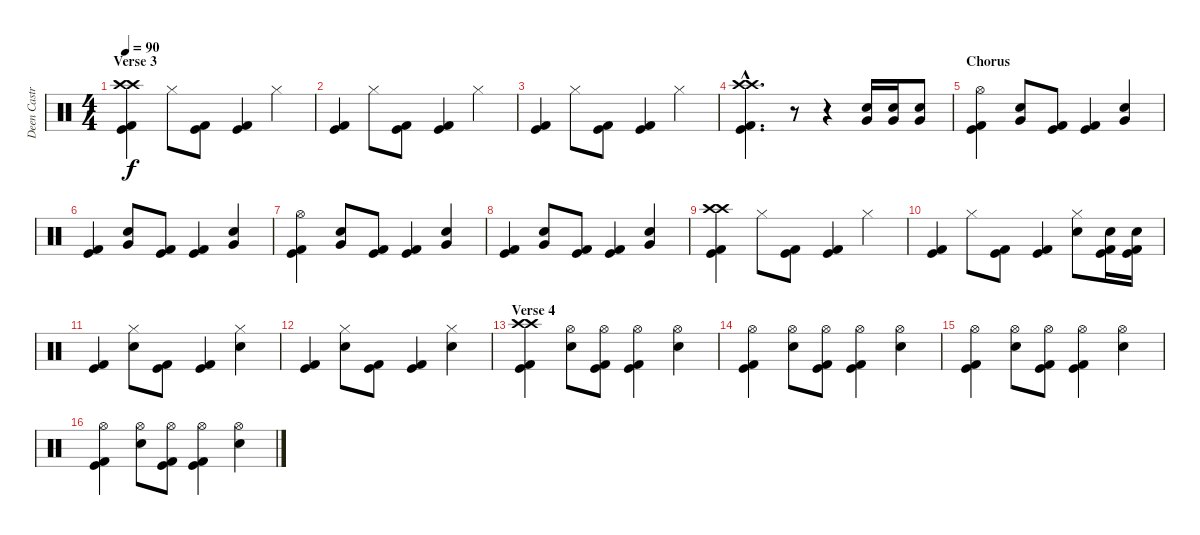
\track ("Deen Castronovo" "Deen Castr") {instrument percussion}
\staff {score}
\articulation defaults
\ts (4 4)
\section ("" "Verse 3")
\tempo 90
\clef neutral
\ks c
("Crash high (hit)" "Crash high (hit)" "Kick (hit) 2" "Kick (hit)").4{dy f} "Hi-Hat (closed)".8 ("Kick (hit) 2" "Kick (hit)").8 ("Kick (hit) 2" "Kick (hit)").4 "Hi-Hat (closed)".4 |
("Kick (hit) 2" "Kick (hit)").4 "Hi-Hat (closed)".8 ("Kick (hit) 2" "Kick (hit)").8 ("Kick (hit) 2" "Kick (hit)").4 "Hi-Hat (closed)".4 |
("Kick (hit) 2" "Kick (hit)").4 "Hi-Hat (closed)".8 ("Kick (hit) 2" "Kick (hit)").8 ("Kick (hit) 2" "Kick (hit)").4 "Hi-Hat (closed)".4 |
("Crash high (hit)"{hac} "Crash high (hit)"{hac} "Kick (hit) 2"{hac} "Kick (hit)"{hac}).4{d} r.8 r.4 ("Snare (hit) 2" "Very Low Tom (hit)").16 ("Snare (hit) 2" "Very Low Tom (hit)").16 ("Snare (hit) 2" "Very Low Tom (hit)").8 |
\section ("" "Chorus")
("Hi-Hat (open)" "Kick (hit) 2" "Kick (hit)").4 ("Snare (hit) 2" "Very Low Tom (hit)").8 ("Kick (hit) 2" "Kick (hit)").8 ("Kick (hit) 2" "Kick (hit)").4 ("Snare (hit) 2" "Very Low Tom (hit)").4 |
("Kick (hit) 2" "Kick (hit)").4 ("Snare (hit) 2" "Very Low Tom (hit)").8 ("Kick (hit) 2" "Kick (hit)").8 ("Kick (hit) 2" "Kick (hit)").4 ("Snare (hit) 2" "Very Low Tom (hit)").4 |
("Hi-Hat (open)" "Kick (hit) 2" "Kick (hit)").4 ("Snare (hit) 2" "Very Low Tom (hit)").8 ("Kick (hit) 2" "Kick (hit)").8 ("Kick (hit) 2" "Kick (hit)").4 ("Snare (hit) 2" "Very Low Tom (hit)").4 |
("Kick (hit) 2" "Kick (hit)").4 ("Snare (hit) 2" "Very Low Tom (hit)").8 ("Kick (hit) 2" "Kick (hit)").8 ("Kick (hit) 2" "Kick (hit)").4 ("Snare (hit) 2" "Very Low Tom (hit)").4 |
("Crash high (hit)" "Crash high (hit)" "Kick (hit) 2" "Kick (hit)").4 "Hi-Hat (closed)".8 ("Kick (hit) 2" "Kick (hit)").8 ("Kick (hit) 2" "Kick (hit)").4 "Hi-Hat (closed)".4 |
("Kick (hit) 2" "Kick (hit)").4 "Hi-Hat (closed)".8 ("Kick (hit) 2" "Kick (hit)").8 ("Kick (hit) 2" "Kick (hit)").4 ("Snare (hit) 2" "Hi-Hat (closed)").8 ("Snare (hit) 2" "Kick (hit) 2" "Kick (hit)").16 ("Snare (hit) 2" "Kick (hit) 2" "Kick (hit)").16 |
("Kick (hit) 2" "Kick (hit)").4 ("Snare (hit) 2" "Hi-Hat (closed)").8 ("Kick (hit) 2" "Kick (hit)").8 ("Kick (hit) 2" "Kick (hit)").4 ("Snare (hit) 2" "Hi-Hat (closed)").4 |
("Kick (hit) 2" "Kick (hit)").4 ("Snare (hit) 2" "Hi-Hat (closed)").8 ("Kick (hit) 2" "Kick (hit)").8 ("Kick (hit) 2" "Kick (hit)").4 ("Snare (hit) 2" "Hi-Hat (closed)").4 |
\section ("" "Verse 4")
("Crash high (hit)" "Crash high (hit)" "Kick (hit) 2" "Kick (hit)").4 ("Snare (hit) 2" "Hi-Hat (open)").8 ("Hi-Hat (open)" "Kick (hit) 2" "Kick (hit)").8 ("Hi-Hat (open)" "Kick (hit) 2" "Kick (hit)").4 ("Snare (hit) 2" "Hi-Hat (open)").4 |
("Hi-Hat (open)" "Kick (hit) 2" "Kick (hit)").4 ("Snare (hit) 2" "Hi-Hat (open)").8 ("Hi-Hat (open)" "Kick (hit) 2" "Kick (hit)").8 ("Hi-Hat (open)" "Kick (hit) 2" "Kick (hit)").4 ("Snare (hit) 2" "Hi-Hat (open)").4 |
("Hi-Hat (open)" "Kick (hit) 2" "Kick (hit)").4 ("Snare (hit) 2" "Hi-Hat (open)").8 ("Hi-Hat (open)" "Kick (hit) 2" "Kick (hit)").8 ("Hi-Hat (open)" "Kick (hit) 2" "Kick (hit)").4 ("Snare (hit) 2" "Hi-Hat (open)").4 |
("Hi-Hat (open)" "Kick (hit) 2" "Kick (hit)").4 ("Snare (hit) 2" "Hi-Hat (open)").8 ("Hi-Hat (open)" "Kick (hit) 2" "Kick (hit)").8 ("Hi-Hat (open)" "Kick (hit) 2" "Kick (hit)").4 ("Snare (hit) 2" "Hi-Hat (open)").4
